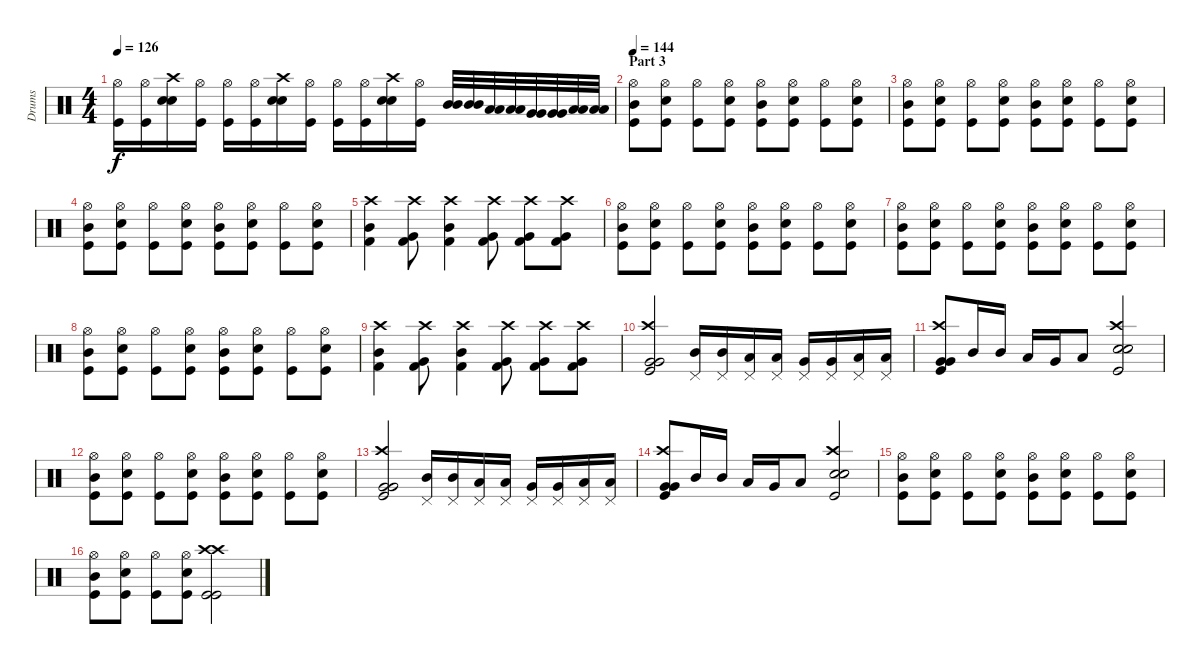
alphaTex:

\track ("Drums" "Drums") {instrument percussion}
\staff {score}
\articulation defaults
\ts (4 4)
\tempo 126
\clef neutral
\ks c
("Hi-Hat (open)" "Kick (hit)").16{dy f} ("Hi-Hat (open)" "Kick (hit)").16 ("Crash high (hit)" "Snare (hit) 2" "Snare (hit) 2").16 ("Hi-Hat (open)" "Kick (hit)").16 ("Hi-Hat (open)" "Kick (hit)").16 ("Hi-Hat (open)" "Kick (hit)").16 ("Crash high (hit)" "Snare (hit) 2" "Snare (hit) 2").16 ("Hi-Hat (open)" "Kick (hit)").16 ("Hi-Hat (open)" "Kick (hit)").16 ("Hi-Hat (open)" "Kick (hit)").16 ("Crash high (hit)" "Snare (hit) 2" "Snare (hit) 2").16 ("Hi-Hat (open)" "Kick (hit)").16 ("Mid Tom (hit)" "Mid Tom (hit)").32 ("Mid Tom (hit)" "Mid Tom (hit)").32 ("Low Tom (hit)" "Low Tom (hit)").32 ("Low Tom (hit)" "Low Tom (hit)").32 ("Very Low Tom (hit)" "Very Low Tom (hit)").32 ("Very Low Tom (hit)" "Very Low Tom (hit)").32 ("Low Floor Tom (hit)" "Low Floor Tom (hit)").32 ("Low Floor Tom (hit)" "Low Floor Tom (hit)").32 |
\section ("" "Part 3")
\tempo 144
("Hi-Hat (open)" "Kick (hit)" "Mid Tom (hit)").8 ("Hi-Hat (open)" "Kick (hit)" "Snare (hit) 2").8 ("Hi-Hat (open)" "Kick (hit)").8 ("Hi-Hat (open)" "Kick (hit)" "Snare (hit) 2").8 ("Hi-Hat (open)" "Kick (hit)" "Mid Tom (hit)").8 ("Hi-Hat (open)" "Kick (hit)" "Snare (hit) 2").8 ("Hi-Hat (open)" "Kick (hit)").8 ("Hi-Hat (open)" "Kick (hit)" "Snare (hit) 2").8 |
("Hi-Hat (open)" "Kick (hit)" "Mid Tom (hit)").8 ("Hi-Hat (open)" "Kick (hit)" "Snare (hit) 2").8 ("Hi-Hat (open)" "Kick (hit)").8 ("Hi-Hat (open)" "Kick (hit)" "Snare (hit) 2").8 ("Hi-Hat (open)" "Kick (hit)" "Mid Tom (hit)").8 ("Hi-Hat (open)" "Kick (hit)" "Snare (hit) 2").8 ("Hi-Hat (open)" "Kick (hit)").8 ("Hi-Hat (open)" "Kick (hit)" "Snare (hit) 2").8 |
("Hi-Hat (open)" "Kick (hit)" "Mid Tom (hit)").8 ("Hi-Hat (open)" "Kick (hit)" "Snare (hit) 2").8 ("Hi-Hat (open)" "Kick (hit)").8 ("Hi-Hat (open)" "Kick (hit)" "Snare (hit) 2").8 ("Hi-Hat (open)" "Kick (hit)" "Mid Tom (hit)").8 ("Hi-Hat (open)" "Kick (hit)" "Snare (hit) 2").8 ("Hi-Hat (open)" "Kick (hit)").8 ("Hi-Hat (open)" "Kick (hit)" "Snare (hit) 2").8 |
("Crash high (hit)" "Kick (hit) 2" "Mid Tom (hit)").4 ("Crash high (hit)" "Kick (hit) 2" "Very Low Tom (hit)").8 ("Crash high (hit)" "Kick (hit) 2" "Mid Tom (hit)").4 ("Crash high (hit)" "Kick (hit) 2" "Very Low Tom (hit)").8 ("Crash high (hit)" "Kick (hit) 2" "Very Low Tom (hit)").8 ("Crash high (hit)" "Kick (hit) 2" "Very Low Tom (hit)").8 |
("Hi-Hat (open)" "Kick (hit)" "Mid Tom (hit)").8 ("Hi-Hat (open)" "Kick (hit)" "Snare (hit) 2").8 ("Hi-Hat (open)" "Kick (hit)").8 ("Hi-Hat (open)" "Kick (hit)" "Snare (hit) 2").8 ("Hi-Hat (open)" "Kick (hit)" "Mid Tom (hit)").8 ("Hi-Hat (open)" "Kick (hit)" "Snare (hit) 2").8 ("Hi-Hat (open)" "Kick (hit)").8 ("Hi-Hat (open)" "Kick (hit)" "Snare (hit) 2").8 |
("Hi-Hat (open)" "Kick (hit)" "Mid Tom (hit)").8 ("Hi-Hat (open)" "Kick (hit)" "Snare (hit) 2").8 ("Hi-Hat (open)" "Kick (hit)").8 ("Hi-Hat (open)" "Kick (hit)" "Snare (hit) 2").8 ("Hi-Hat (open)" "Kick (hit)" "Mid Tom (hit)").8 ("Hi-Hat (open)" "Kick (hit)" "Snare (hit) 2").8 ("Hi-Hat (open)" "Kick (hit)").8 ("Hi-Hat (open)" "Kick (hit)" "Snare (hit) 2").8 |
("Hi-Hat (open)" "Kick (hit)" "Mid Tom (hit)").8 ("Hi-Hat (open)" "Kick (hit)" "Snare (hit) 2").8 ("Hi-Hat (open)" "Kick (hit)").8 ("Hi-Hat (open)" "Kick (hit)" "Snare (hit) 2").8 ("Hi-Hat (open)" "Kick (hit)" "Mid Tom (hit)").8 ("Hi-Hat (open)" "Kick (hit)" "Snare (hit) 2").8 ("Hi-Hat (open)" "Kick (hit)").8 ("Hi-Hat (open)" "Kick (hit)" "Snare (hit) 2").8 |
("Crash high (hit)" "Kick (hit) 2" "Mid Tom (hit)").4 ("Crash high (hit)" "Kick (hit) 2" "Very Low Tom (hit)").8 ("Crash high (hit)" "Kick (hit) 2" "Mid Tom (hit)").4 ("Crash high (hit)" "Kick (hit) 2" "Very Low Tom (hit)").8 ("Crash high (hit)" "Kick (hit) 2" "Very Low Tom (hit)").8 ("Crash high (hit)" "Kick (hit) 2" "Very Low Tom (hit)").8 |
("Crash high (hit)" "Very Low Tom (hit)" "Very Low Tom (hit)" "Kick (hit)").2 ("Mid Tom (hit)" "Pedal Hi-Hat (hit)").16 ("Mid Tom (hit)" "Pedal Hi-Hat (hit)").16 ("Low Tom (hit)" "Pedal Hi-Hat (hit)").16 ("Low Tom (hit)" "Pedal Hi-Hat (hit)").16 ("Very Low Tom (hit)" "Pedal Hi-Hat (hit)").16 ("Very Low Tom (hit)" "Pedal Hi-Hat (hit)").16 ("Low Floor Tom (hit)" "Pedal Hi-Hat (hit)").16 ("Low Floor Tom (hit)" "Pedal Hi-Hat (hit)").16 |
("Crash high (hit)" "Very Low Tom (hit)" "Very Low Tom (hit)" "Kick (hit)").8 "Mid Tom (hit)".16 "Mid Tom (hit)".16 "Low Tom (hit)".16 "Very Low Tom (hit)".16 "Low Floor Tom (hit)".8 ("Snare (hit) 2" "Snare (hit) 2" "Kick (hit)" "Crash high (hit)").2 |
("Hi-Hat (open)" "Kick (hit)" "Mid Tom (hit)").8 ("Hi-Hat (open)" "Kick (hit)" "Snare (hit) 2").8 ("Hi-Hat (open)" "Kick (hit)").8 ("Hi-Hat (open)" "Kick (hit)" "Snare (hit) 2").8 ("Hi-Hat (open)" "Kick (hit)" "Mid Tom (hit)").8 ("Hi-Hat (open)" "Kick (hit)" "Snare (hit) 2").8 ("Hi-Hat (open)" "Kick (hit)").8 ("Hi-Hat (open)" "Kick (hit)" "Snare (hit) 2").8 |
("Crash high (hit)" "Very Low Tom (hit)" "Very Low Tom (hit)" "Kick (hit)").2 ("Mid Tom (hit)" "Pedal Hi-Hat (hit)").16 ("Mid Tom (hit)" "Pedal Hi-Hat (hit)").16 ("Low Tom (hit)" "Pedal Hi-Hat (hit)").16 ("Low Tom (hit)" "Pedal Hi-Hat (hit)").16 ("Very Low Tom (hit)" "Pedal Hi-Hat (hit)").16 ("Very Low Tom (hit)" "Pedal Hi-Hat (hit)").16 ("Low Floor Tom (hit)" "Pedal Hi-Hat (hit)").16 ("Low Floor Tom (hit)" "Pedal Hi-Hat (hit)").16 |
("Crash high (hit)" "Very Low Tom (hit)" "Very Low Tom (hit)" "Kick (hit)").8 "Mid Tom (hit)".16 "Mid Tom (hit)".16 "Low Tom (hit)".16 "Very Low Tom (hit)".16 "Low Floor Tom (hit)".8 ("Snare (hit) 2" "Snare (hit) 2" "Kick (hit)" "Crash high (hit)").2 |
("Hi-Hat (open)" "Kick (hit)" "Mid Tom (hit)").8 ("Hi-Hat (open)" "Kick (hit)" "Snare (hit) 2").8 ("Hi-Hat (open)" "Kick (hit)").8 ("Hi-Hat (open)" "Kick (hit)" "Snare (hit) 2").8 ("Hi-Hat (open)" "Kick (hit)" "Mid Tom (hit)").8 ("Hi-Hat (open)" "Kick (hit)" "Snare (hit) 2").8 ("Hi-Hat (open)" "Kick (hit)").8 ("Hi-Hat (open)" "Kick (hit)" "Snare (hit) 2").8 |
("Hi-Hat (open)" "Kick (hit)" "Mid Tom (hit)").8 ("Hi-Hat (open)" "Kick (hit)" "Snare (hit) 2").8 ("Hi-Hat (open)" "Kick (hit)").8 ("Hi-Hat (open)" "Kick (hit)" "Snare (hit) 2").8 ("Crash high (hit)" "Crash high (hit)" "Kick (hit)" "Kick (hit)").2
